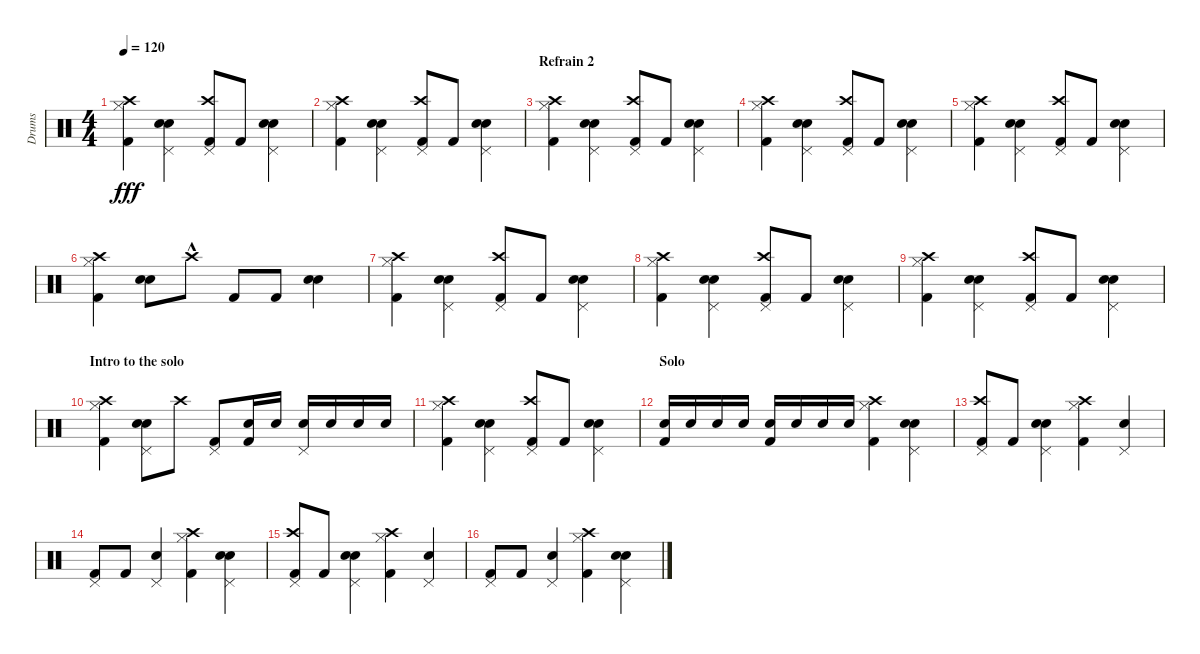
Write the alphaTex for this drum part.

\track ("Drums" "Drums") {instrument percussion}
\staff {score}
\articulation defaults
\ts (4 4)
\tempo 120
\clef neutral
\ks c
("Hi-Hat (closed)" "Kick (hit) 2" "Crash high (hit)").4{dy fff} ("Electric Snare (hit)" "Pedal Hi-Hat (hit)" "Snare (hit) 2").4 ("Pedal Hi-Hat (hit)" "Kick (hit) 2" "Crash high (hit)").8 "Kick (hit) 2".8 ("Electric Snare (hit)" "Pedal Hi-Hat (hit)" "Snare (hit) 2").4 |
("Hi-Hat (closed)" "Kick (hit) 2" "Crash high (hit)").4 ("Electric Snare (hit)" "Pedal Hi-Hat (hit)" "Snare (hit) 2").4 ("Pedal Hi-Hat (hit)" "Kick (hit) 2" "Crash high (hit)").8 "Kick (hit) 2".8 ("Electric Snare (hit)" "Pedal Hi-Hat (hit)" "Snare (hit) 2").4 |
\section ("" "Refrain 2")
("Hi-Hat (closed)" "Kick (hit) 2" "Crash high (hit)").4 ("Electric Snare (hit)" "Pedal Hi-Hat (hit)" "Snare (hit) 2").4 ("Pedal Hi-Hat (hit)" "Kick (hit) 2" "Crash high (hit)").8 "Kick (hit) 2".8 ("Electric Snare (hit)" "Pedal Hi-Hat (hit)" "Snare (hit) 2").4 |
("Hi-Hat (closed)" "Kick (hit) 2" "Crash high (hit)").4 ("Electric Snare (hit)" "Pedal Hi-Hat (hit)" "Snare (hit) 2").4 ("Pedal Hi-Hat (hit)" "Kick (hit) 2" "Crash high (hit)").8 "Kick (hit) 2".8 ("Electric Snare (hit)" "Pedal Hi-Hat (hit)" "Snare (hit) 2").4 |
("Hi-Hat (closed)" "Kick (hit) 2" "Crash high (hit)").4 ("Electric Snare (hit)" "Pedal Hi-Hat (hit)" "Snare (hit) 2").4 ("Pedal Hi-Hat (hit)" "Kick (hit) 2" "Crash high (hit)").8 "Kick (hit) 2".8 ("Electric Snare (hit)" "Pedal Hi-Hat (hit)" "Snare (hit) 2").4 |
("Hi-Hat (closed)" "Kick (hit) 2" "Crash high (hit)").4 ("Electric Snare (hit)" "Snare (hit) 2").8 "Crash high (hit)"{hac}.8 "Kick (hit) 2".8 "Kick (hit) 2".8 ("Electric Snare (hit)" "Snare (hit) 2").4 |
("Hi-Hat (closed)" "Kick (hit) 2" "Crash high (hit)").4 ("Electric Snare (hit)" "Pedal Hi-Hat (hit)" "Snare (hit) 2").4 ("Pedal Hi-Hat (hit)" "Kick (hit) 2" "Crash high (hit)").8 "Kick (hit) 2".8 ("Electric Snare (hit)" "Pedal Hi-Hat (hit)" "Snare (hit) 2").4 |
("Hi-Hat (closed)" "Kick (hit) 2" "Crash high (hit)").4 ("Electric Snare (hit)" "Pedal Hi-Hat (hit)" "Snare (hit) 2").4 ("Pedal Hi-Hat (hit)" "Kick (hit) 2" "Crash high (hit)").8 "Kick (hit) 2".8 ("Electric Snare (hit)" "Pedal Hi-Hat (hit)" "Snare (hit) 2").4 |
("Hi-Hat (closed)" "Kick (hit) 2" "Crash high (hit)").4 ("Electric Snare (hit)" "Pedal Hi-Hat (hit)" "Snare (hit) 2").4 ("Pedal Hi-Hat (hit)" "Kick (hit) 2" "Crash high (hit)").8 "Kick (hit) 2".8 ("Electric Snare (hit)" "Pedal Hi-Hat (hit)" "Snare (hit) 2").4 |
\section ("" "Intro to the solo")
("Hi-Hat (closed)" "Kick (hit) 2" "Crash high (hit)").4 ("Electric Snare (hit)" "Pedal Hi-Hat (hit)" "Snare (hit) 2").8 "Crash high (hit)".8 ("Pedal Hi-Hat (hit)" "Kick (hit) 2").8 ("Kick (hit) 2" "Snare (hit) 2").16 "Snare (hit) 2".16 ("Pedal Hi-Hat (hit)" "Electric Snare (hit)").16 "Electric Snare (hit)".16 "Electric Snare (hit)".16 "Electric Snare (hit)".16 |
("Hi-Hat (closed)" "Kick (hit) 2" "Crash high (hit)").4 ("Electric Snare (hit)" "Pedal Hi-Hat (hit)" "Snare (hit) 2").4 ("Pedal Hi-Hat (hit)" "Kick (hit) 2" "Crash high (hit)").8 "Kick (hit) 2".8 ("Electric Snare (hit)" "Pedal Hi-Hat (hit)" "Snare (hit) 2").4 |
\section ("" "Solo")
("Electric Snare (hit)" "Kick (hit) 2").16 "Electric Snare (hit)".16 "Electric Snare (hit)".16 "Electric Snare (hit)".16 ("Snare (hit) 2" "Kick (hit) 2").16 "Snare (hit) 2".16 "Snare (hit) 2".16 "Snare (hit) 2".16 ("Hi-Hat (closed)" "Kick (hit) 2" "Crash high (hit)").4 ("Electric Snare (hit)" "Pedal Hi-Hat (hit)" "Snare (hit) 2").4 |
("Pedal Hi-Hat (hit)" "Kick (hit) 2" "Crash high (hit)").8 "Kick (hit) 2".8 ("Electric Snare (hit)" "Pedal Hi-Hat (hit)" "Snare (hit) 2").4 ("Hi-Hat (closed)" "Kick (hit) 2" "Crash high (hit)").4 ("Electric Snare (hit)" "Pedal Hi-Hat (hit)").4 |
("Pedal Hi-Hat (hit)" "Kick (hit) 2").8 "Kick (hit) 2".8 ("Electric Snare (hit)" "Pedal Hi-Hat (hit)").4 ("Hi-Hat (closed)" "Kick (hit) 2" "Crash high (hit)").4 ("Electric Snare (hit)" "Pedal Hi-Hat (hit)" "Snare (hit) 2").4 |
("Pedal Hi-Hat (hit)" "Kick (hit) 2" "Crash high (hit)").8 "Kick (hit) 2".8 ("Electric Snare (hit)" "Pedal Hi-Hat (hit)" "Snare (hit) 2").4 ("Hi-Hat (closed)" "Kick (hit) 2" "Crash high (hit)").4 ("Electric Snare (hit)" "Pedal Hi-Hat (hit)").4 |
("Pedal Hi-Hat (hit)" "Kick (hit) 2").8 "Kick (hit) 2".8 ("Electric Snare (hit)" "Pedal Hi-Hat (hit)").4 ("Hi-Hat (closed)" "Kick (hit) 2" "Crash high (hit)").4 ("Electric Snare (hit)" "Pedal Hi-Hat (hit)" "Snare (hit) 2").4
